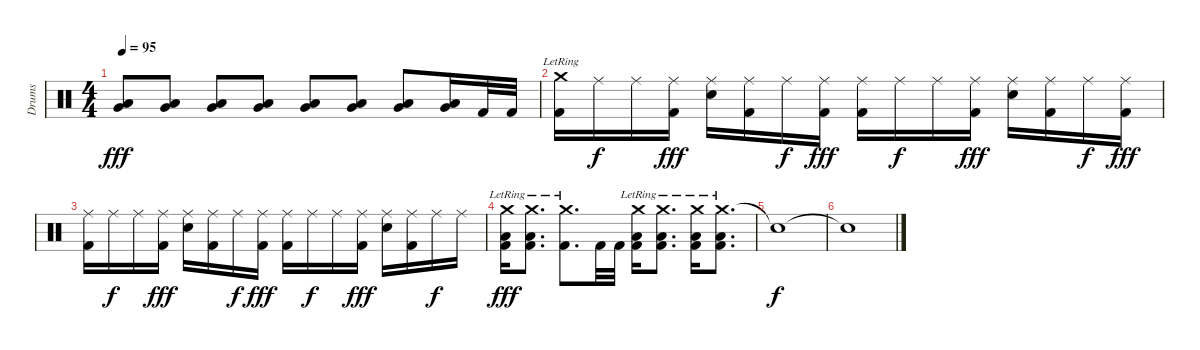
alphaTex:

\track ("Drums" "Drums") {instrument percussion}
\staff {score}
\articulation defaults
\ts (4 4)
\tempo 95
\clef neutral
\ks c
("Very Low Tom (hit)" "Low Floor Tom (hit)").8{dy fff} ("Very Low Tom (hit)" "Low Floor Tom (hit)").8 ("Very Low Tom (hit)" "Low Floor Tom (hit)").8 ("Very Low Tom (hit)" "Low Floor Tom (hit)").8 ("Very Low Tom (hit)" "Low Floor Tom (hit)").8 ("Very Low Tom (hit)" "Low Floor Tom (hit)").8 ("Very Low Tom (hit)" "Low Floor Tom (hit)").8 ("Very Low Tom (hit)" "Low Floor Tom (hit)").16 "Kick (hit) 2".32 "Kick (hit) 2".32 |
("Crash medium (hit)"{lr} "Kick (hit) 2").16 "Ride (middle)".16{dy f} "Ride (middle)".16 ("Ride (middle)" "Kick (hit) 2").16{dy fff} ("Ride (middle)" "Electric Snare (hit)").16 ("Ride (middle)" "Kick (hit) 2").16 "Ride (middle)".16{dy f} ("Ride (middle)" "Kick (hit) 2").16{dy fff} ("Ride (middle)" "Kick (hit) 2").16 "Ride (middle)".16{dy f} "Ride (middle)".16 ("Ride (middle)" "Kick (hit) 2").16{dy fff} ("Ride (middle)" "Electric Snare (hit)").16 ("Ride (middle)" "Kick (hit) 2").16 "Ride (middle)".16{dy f} ("Ride (middle)" "Kick (hit) 2").16{dy fff} |
("Ride (middle)" "Kick (hit) 2").16 "Ride (middle)".16{dy f} "Ride (middle)".16 ("Ride (middle)" "Kick (hit) 2").16{dy fff} ("Ride (middle)" "Electric Snare (hit)").16 ("Ride (middle)" "Kick (hit) 2").16 "Ride (middle)".16{dy f} ("Ride (middle)" "Kick (hit) 2").16{dy fff} ("Ride (middle)" "Kick (hit) 2").16 "Ride (middle)".16{dy f} "Ride (middle)".16 ("Ride (middle)" "Kick (hit) 2").16{dy fff} ("Ride (middle)" "Electric Snare (hit)").16 ("Ride (middle)" "Kick (hit) 2").16 "Ride (middle)".16{dy f} "Ride (middle)".16 |
("Crash medium (hit)"{lr} "Low Floor Tom (hit)" "Kick (hit) 2").16{dy fff} ("Crash medium (hit)"{lr} "Low Floor Tom (hit)" "Kick (hit) 2").8{d} ("Crash medium (hit)"{lr} "Kick (hit) 2").8{d} "Kick (hit) 2".32 "Kick (hit) 2".32 ("Crash medium (hit)"{lr} "Low Floor Tom (hit)" "Kick (hit) 2").16 ("Crash medium (hit)"{lr} "Low Floor Tom (hit)" "Kick (hit) 2").8{d} ("Crash medium (hit)"{lr} "Low Floor Tom (hit)" "Kick (hit) 2").16 ("Crash medium (hit)"{lr} "Low Floor Tom (hit)" "Kick (hit) 2").8{d} |
"Snare (hit)"{t}.1{dy f} |
"Snare (hit)"{t}.1
